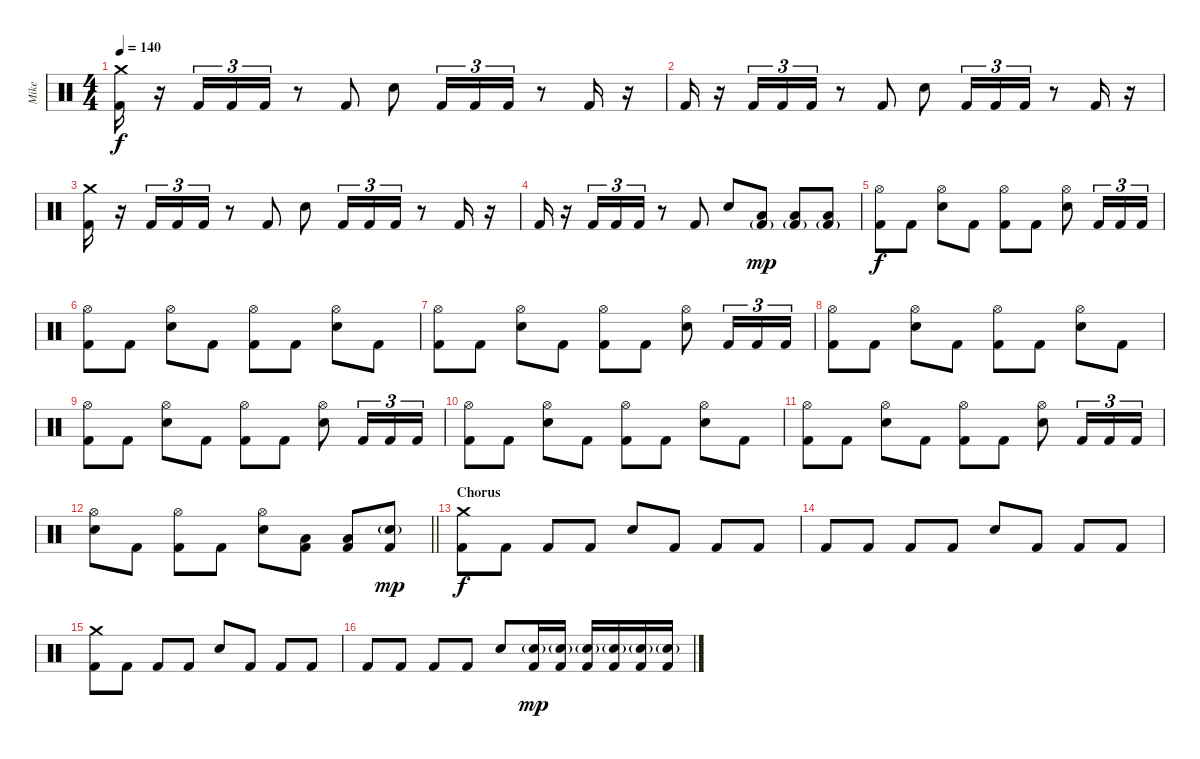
\track ("Mike" "Mike") {instrument percussion}
\staff {score}
\articulation defaults
\ts (4 4)
\tempo 140
\clef neutral
\ks c
("Crash medium (hit)" "Kick (hit) 2").16{dy f} r.16 "Kick (hit) 2".16{tu (3 2)} "Kick (hit) 2".16{tu (3 2)} "Kick (hit) 2".16{tu (3 2)} r.8 "Kick (hit) 2".8 "Electric Snare (hit)".8 "Kick (hit) 2".16{tu (3 2)} "Kick (hit) 2".16{tu (3 2)} "Kick (hit) 2".16{tu (3 2)} r.8 "Kick (hit) 2".16 r.16 |
"Kick (hit) 2".16 r.16 "Kick (hit) 2".16{tu (3 2)} "Kick (hit) 2".16{tu (3 2)} "Kick (hit) 2".16{tu (3 2)} r.8 "Kick (hit) 2".8 "Electric Snare (hit)".8 "Kick (hit) 2".16{tu (3 2)} "Kick (hit) 2".16{tu (3 2)} "Kick (hit) 2".16{tu (3 2)} r.8 "Kick (hit) 2".16 r.16 |
("Crash medium (hit)" "Kick (hit) 2").16 r.16 "Kick (hit) 2".16{tu (3 2)} "Kick (hit) 2".16{tu (3 2)} "Kick (hit) 2".16{tu (3 2)} r.8 "Kick (hit) 2".8 "Electric Snare (hit)".8 "Kick (hit) 2".16{tu (3 2)} "Kick (hit) 2".16{tu (3 2)} "Kick (hit) 2".16{tu (3 2)} r.8 "Kick (hit) 2".16 r.16 |
"Kick (hit) 2".16 r.16 "Kick (hit) 2".16{tu (3 2)} "Kick (hit) 2".16{tu (3 2)} "Kick (hit) 2".16{tu (3 2)} r.8 "Kick (hit) 2".8 "Electric Snare (hit)".8 ("Low Floor Tom (hit)" "Kick (hit) 2"{g}).8{dy mp} ("Low Floor Tom (hit)" "Kick (hit) 2"{g}).8 ("Low Floor Tom (hit)" "Kick (hit) 2"{g}).8 |
("Hi-Hat (open)" "Kick (hit) 2").8{dy f} "Kick (hit) 2".8 ("Hi-Hat (open)" "Electric Snare (hit)").8 "Kick (hit) 2".8 ("Hi-Hat (open)" "Kick (hit) 2").8 "Kick (hit) 2".8 ("Hi-Hat (open)" "Electric Snare (hit)").8 "Kick (hit) 2".16{tu (3 2)} "Kick (hit) 2".16{tu (3 2)} "Kick (hit) 2".16{tu (3 2)} |
("Hi-Hat (open)" "Kick (hit) 2").8 "Kick (hit) 2".8 ("Hi-Hat (open)" "Electric Snare (hit)").8 "Kick (hit) 2".8 ("Hi-Hat (open)" "Kick (hit) 2").8 "Kick (hit) 2".8 ("Hi-Hat (open)" "Electric Snare (hit)").8 "Kick (hit) 2".8 |
("Hi-Hat (open)" "Kick (hit) 2").8 "Kick (hit) 2".8 ("Hi-Hat (open)" "Electric Snare (hit)").8 "Kick (hit) 2".8 ("Hi-Hat (open)" "Kick (hit) 2").8 "Kick (hit) 2".8 ("Hi-Hat (open)" "Electric Snare (hit)").8 "Kick (hit) 2".16{tu (3 2)} "Kick (hit) 2".16{tu (3 2)} "Kick (hit) 2".16{tu (3 2)} |
("Hi-Hat (open)" "Kick (hit) 2").8 "Kick (hit) 2".8 ("Hi-Hat (open)" "Electric Snare (hit)").8 "Kick (hit) 2".8 ("Hi-Hat (open)" "Kick (hit) 2").8 "Kick (hit) 2".8 ("Hi-Hat (open)" "Electric Snare (hit)").8 "Kick (hit) 2".8 |
("Hi-Hat (open)" "Kick (hit) 2").8 "Kick (hit) 2".8 ("Hi-Hat (open)" "Electric Snare (hit)").8 "Kick (hit) 2".8 ("Hi-Hat (open)" "Kick (hit) 2").8 "Kick (hit) 2".8 ("Hi-Hat (open)" "Electric Snare (hit)").8 "Kick (hit) 2".16{tu (3 2)} "Kick (hit) 2".16{tu (3 2)} "Kick (hit) 2".16{tu (3 2)} |
("Hi-Hat (open)" "Kick (hit) 2").8 "Kick (hit) 2".8 ("Hi-Hat (open)" "Electric Snare (hit)").8 "Kick (hit) 2".8 ("Hi-Hat (open)" "Kick (hit) 2").8 "Kick (hit) 2".8 ("Hi-Hat (open)" "Electric Snare (hit)").8 "Kick (hit) 2".8 |
("Hi-Hat (open)" "Kick (hit) 2").8 "Kick (hit) 2".8 ("Hi-Hat (open)" "Electric Snare (hit)").8 "Kick (hit) 2".8 ("Hi-Hat (open)" "Kick (hit) 2").8 "Kick (hit) 2".8 ("Hi-Hat (open)" "Electric Snare (hit)").8 "Kick (hit) 2".16{tu (3 2)} "Kick (hit) 2".16{tu (3 2)} "Kick (hit) 2".16{tu (3 2)} |
\barLineRight lightlight
("Hi-Hat (open)" "Electric Snare (hit)").8 "Kick (hit) 2".8 ("Hi-Hat (open)" "Kick (hit) 2").8 "Kick (hit) 2".8 ("Hi-Hat (open)" "Electric Snare (hit)").8 ("Low Floor Tom (hit)" "Kick (hit) 2").8 ("Low Floor Tom (hit)" "Kick (hit) 2").8 ("Electric Snare (hit)"{g} "Kick (hit) 2").8{dy mp} |
\section ("" "Chorus")
("Crash medium (hit)" "Kick (hit) 2").8{dy f} "Kick (hit) 2".8 "Kick (hit) 2".8 "Kick (hit) 2".8 "Electric Snare (hit)".8 "Kick (hit) 2".8 "Kick (hit) 2".8 "Kick (hit) 2".8 |
"Kick (hit) 2".8 "Kick (hit) 2".8 "Kick (hit) 2".8 "Kick (hit) 2".8 "Electric Snare (hit)".8 "Kick (hit) 2".8 "Kick (hit) 2".8 "Kick (hit) 2".8 |
("Crash medium (hit)" "Kick (hit) 2").8 "Kick (hit) 2".8 "Kick (hit) 2".8 "Kick (hit) 2".8 "Electric Snare (hit)".8 "Kick (hit) 2".8 "Kick (hit) 2".8 "Kick (hit) 2".8 |
"Kick (hit) 2".8 "Kick (hit) 2".8 "Kick (hit) 2".8 "Kick (hit) 2".8 "Electric Snare (hit)".8 ("Electric Snare (hit)"{g} "Kick (hit) 2").16{dy mp} ("Electric Snare (hit)"{g} "Kick (hit) 2").16 ("Electric Snare (hit)"{g} "Kick (hit) 2").16 ("Electric Snare (hit)"{g} "Kick (hit) 2").16 ("Electric Snare (hit)"{g} "Kick (hit) 2").16 ("Electric Snare (hit)"{g} "Kick (hit) 2").16
